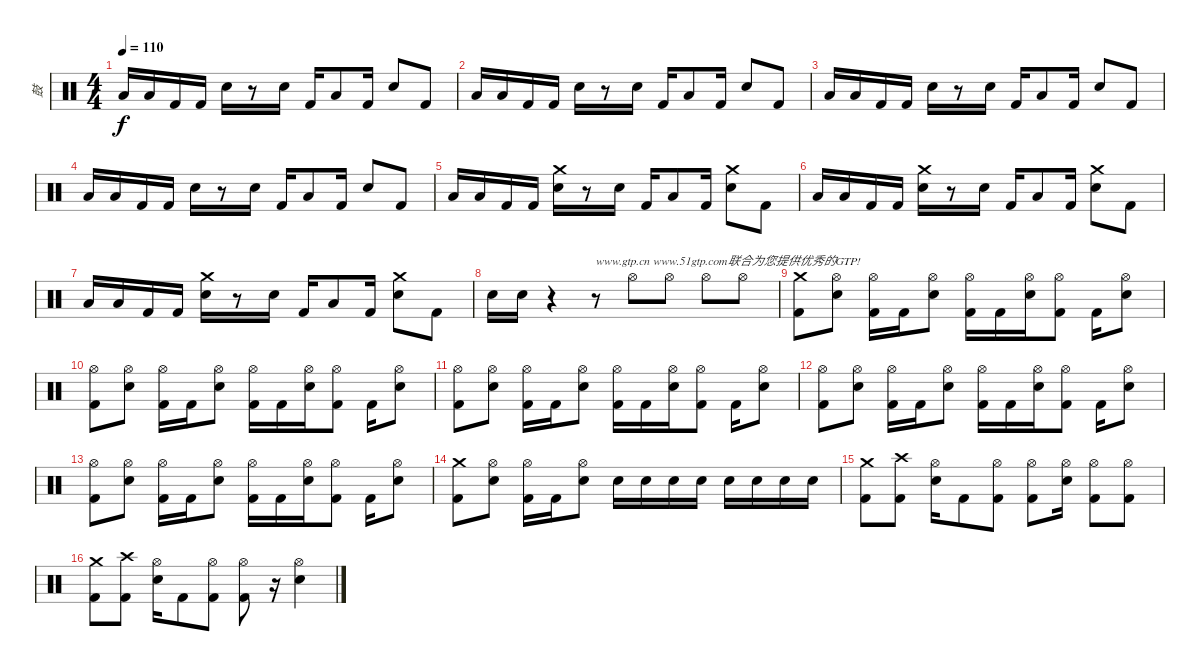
\track ("鼓" "鼓") {instrument percussion}
\staff {score}
\articulation defaults
\ts (4 4)
\tempo 110
\clef neutral
\ks c "Low Tom (hit)".16{dy f} "Low Tom (hit)".16 "Kick (hit) 2".16 "Kick (hit) 2".16 "Electric Snare (hit)".16
r.8 "Electric Snare (hit)".16 "Kick (hit) 2".16 "Low Tom (hit)".8 "Kick (hit) 2".16 "Electric Snare (hit)".8 "Kick (hit) 2".8 |
"Low Tom (hit)".16 "Low Tom (hit)".16 "Kick (hit) 2".16 "Kick (hit) 2".16 "Electric Snare (hit)".16 r.8 "Electric Snare (hit)".16 "Kick (hit) 2".16 "Low Tom (hit)".8 "Kick (hit) 2".16 "Electric Snare (hit)".8 "Kick (hit) 2".8 |
"Low Tom (hit)".16 "Low Tom (hit)".16 "Kick (hit) 2".16 "Kick (hit) 2".16 "Electric Snare (hit)".16 r.8 "Electric Snare (hit)".16 "Kick (hit) 2".16 "Low Tom (hit)".8 "Kick (hit) 2".16 "Electric Snare (hit)".8 "Kick (hit) 2".8 |
"Low Tom (hit)".16 "Low Tom (hit)".16 "Kick (hit) 2".16 "Kick (hit) 2".16 "Electric Snare (hit)".16 r.8 "Electric Snare (hit)".16 "Kick (hit) 2".16 "Low Tom (hit)".8 "Kick (hit) 2".16 "Electric Snare (hit)".8 "Kick (hit) 2".8 |
"Low Tom (hit)".16 "Low Tom (hit)".16 "Kick (hit) 2".16 "Kick (hit) 2".16 ("Electric Snare (hit)" "Crash medium (hit)").16 r.8 "Electric Snare (hit)".16 "Kick (hit) 2".16 "Low Tom (hit)".8 "Kick (hit) 2".16 ("Electric Snare (hit)" "Crash medium (hit)").8 "Kick (hit) 2".8 |
"Low Tom (hit)".16 "Low Tom (hit)".16 "Kick (hit) 2".16 "Kick (hit) 2".16 ("Electric Snare (hit)" "Crash medium (hit)").16 r.8 "Electric Snare (hit)".16 "Kick (hit) 2".16 "Low Tom (hit)".8 "Kick (hit) 2".16 ("Electric Snare (hit)" "Crash medium (hit)").8 "Kick (hit) 2".8 |
"Low Tom (hit)".16 "Low Tom (hit)".16 "Kick (hit) 2".16 "Kick (hit) 2".16 ("Electric Snare (hit)" "Crash medium (hit)").16 r.8 "Electric Snare (hit)".16 "Kick (hit) 2".16 "Low Tom (hit)".8 "Kick (hit) 2".16 ("Electric Snare (hit)" "Crash medium (hit)").8 "Kick (hit) 2".8 |
"Electric Snare (hit)".16 "Electric Snare (hit)".16 r.4 r.8{txt "www.gtp.cn www.51gtp.com联合为您提供优秀的GTP!"} "Hi-Hat (open)".8 "Hi-Hat (open)".8 "Hi-Hat (open)".8 "Hi-Hat (open)".8 |
("Kick (hit) 2" "Crash medium (hit)").8 ("Electric Snare (hit)" "Hi-Hat (open)").8 ("Kick (hit) 2" "Hi-Hat (open)").16 "Kick (hit) 2".16 ("Electric Snare (hit)" "Hi-Hat (open)").8 ("Kick (hit) 2" "Hi-Hat (open)").16 "Kick (hit) 2".16 ("Electric Snare (hit)" "Hi-Hat (open)").16 ("Kick (hit) 2" "Hi-Hat (open)").8 "Kick (hit) 2".16 ("Electric Snare (hit)" "Hi-Hat (open)").8 |
("Kick (hit) 2" "Hi-Hat (open)").8 ("Electric Snare (hit)" "Hi-Hat (open)").8 ("Kick (hit) 2" "Hi-Hat (open)").16 "Kick (hit) 2".16 ("Electric Snare (hit)" "Hi-Hat (open)").8 ("Kick (hit) 2" "Hi-Hat (open)").16 "Kick (hit) 2".16 ("Electric Snare (hit)" "Hi-Hat (open)").16 ("Kick (hit) 2" "Hi-Hat (open)").8 "Kick (hit) 2".16 ("Electric Snare (hit)" "Hi-Hat (open)").8 |
("Kick (hit) 2" "Hi-Hat (open)").8 ("Electric Snare (hit)" "Hi-Hat (open)").8 ("Kick (hit) 2" "Hi-Hat (open)").16 "Kick (hit) 2".16 ("Electric Snare (hit)" "Hi-Hat (open)").8 ("Kick (hit) 2" "Hi-Hat (open)").16 "Kick (hit) 2".16 ("Electric Snare (hit)" "Hi-Hat (open)").16 ("Kick (hit) 2" "Hi-Hat (open)").8 "Kick (hit) 2".16 ("Electric Snare (hit)" "Hi-Hat (open)").8 |
("Kick (hit) 2" "Hi-Hat (open)").8 ("Electric Snare (hit)" "Hi-Hat (open)").8 ("Kick (hit) 2" "Hi-Hat (open)").16 "Kick (hit) 2".16 ("Electric Snare (hit)" "Hi-Hat (open)").8 ("Kick (hit) 2" "Hi-Hat (open)").16 "Kick (hit) 2".16 ("Electric Snare (hit)" "Hi-Hat (open)").16 ("Kick (hit) 2" "Hi-Hat (open)").8 "Kick (hit) 2".16 ("Electric Snare (hit)" "Hi-Hat (open)").8 |
("Kick (hit) 2" "Hi-Hat (open)").8 ("Electric Snare (hit)" "Hi-Hat (open)").8 ("Kick (hit) 2" "Hi-Hat (open)").16 "Kick (hit) 2".16 ("Electric Snare (hit)" "Hi-Hat (open)").8 ("Kick (hit) 2" "Hi-Hat (open)").16 "Kick (hit) 2".16 ("Electric Snare (hit)" "Hi-Hat (open)").16 ("Kick (hit) 2" "Hi-Hat (open)").8 "Kick (hit) 2".16 ("Electric Snare (hit)" "Hi-Hat (open)").8 |
("Kick (hit) 2" "Crash medium (hit)").8 ("Electric Snare (hit)" "Hi-Hat (open)").8 ("Kick (hit) 2" "Hi-Hat (open)").16 "Kick (hit) 2".16 ("Electric Snare (hit)" "Hi-Hat (open)").8 "Electric Snare (hit)".16 "Electric Snare (hit)".16 "Electric Snare (hit)".16 "Electric Snare (hit)".16 "Electric Snare (hit)".16 "Electric Snare (hit)".16 "Electric Snare (hit)".16 "Electric Snare (hit)".16 |
("Kick (hit) 2" "Crash medium (hit)").8 ("Kick (hit) 2" "Crash high (hit)").8 ("Electric Snare (hit)" "Hi-Hat (open)").16 "Kick (hit) 2".8 ("Kick (hit) 2" "Hi-Hat (open)").8 ("Kick (hit) 2" "Hi-Hat (open)").8 ("Electric Snare (hit)" "Hi-Hat (open)").16 ("Kick (hit) 2" "Hi-Hat (open)").8 ("Kick (hit) 2" "Hi-Hat (open)").8 |
("Kick (hit) 2" "Crash medium (hit)").8 ("Kick (hit) 2" "Crash high (hit)").8 ("Electric Snare (hit)" "Hi-Hat (open)").16 "Kick (hit) 2".8 ("Kick (hit) 2" "Hi-Hat (open)").8 ("Kick (hit) 2" "Hi-Hat (open)").8 r.16 ("Electric Snare (hit)" "Hi-Hat (open)").4
